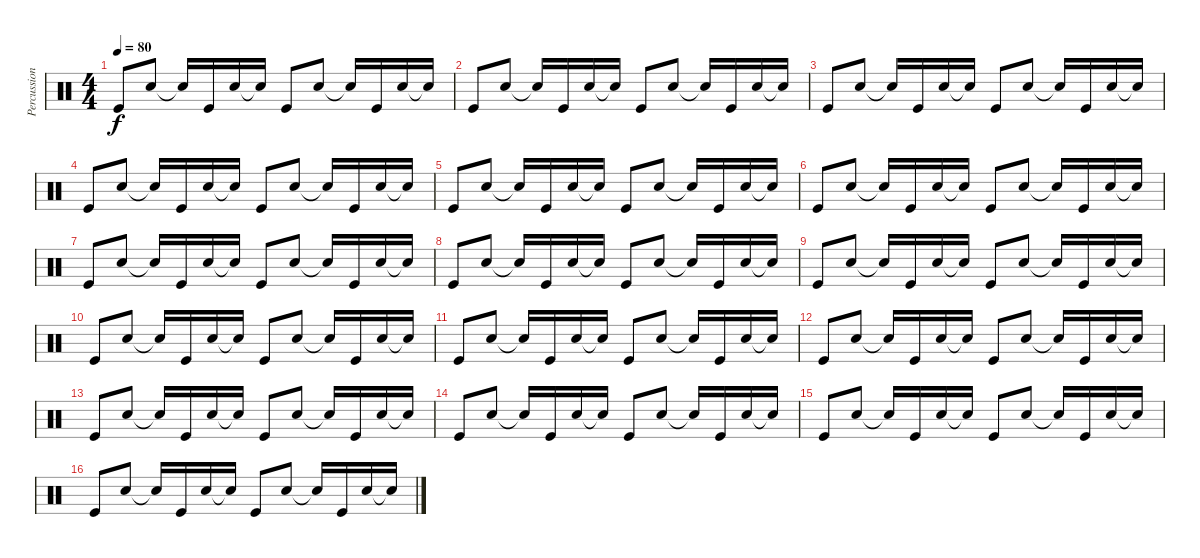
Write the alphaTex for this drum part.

\track ("Percussion" "Percussion") {instrument percussion}
\staff {score}
\articulation defaults
\ts (4 4)
\tempo 80
\clef neutral
\ks c "Kick (hit)".8{dy f} "Snare (hit) 2".8 "Snare (hit)"{t}.16 "Kick (hit)".16 "Snare (hit) 2".16 "Snare (hit)"{t}.16 "Kick (hit)".8 "Snare (hit) 2".8 "Snare (hit)"{t}.16 "Kick (hit)".16 "Snare (hit) 2".16 "Snare (hit)"{t}.16
|
"Kick (hit)".8 "Snare (hit) 2".8 "Snare (hit)"{t}.16 "Kick (hit)".16 "Snare (hit) 2".16 "Snare (hit)"{t}.16 "Kick (hit)".8 "Snare (hit) 2".8 "Snare (hit)"{t}.16 "Kick (hit)".16 "Snare (hit) 2".16 "Snare (hit)"{t}.16 |
"Kick (hit)".8 "Snare (hit) 2".8 "Snare (hit)"{t}.16 "Kick (hit)".16 "Snare (hit) 2".16 "Snare (hit)"{t}.16 "Kick (hit)".8 "Snare (hit) 2".8 "Snare (hit)"{t}.16 "Kick (hit)".16 "Snare (hit) 2".16 "Snare (hit)"{t}.16 |
"Kick (hit)".8 "Snare (hit) 2".8 "Snare (hit)"{t}.16 "Kick (hit)".16 "Snare (hit) 2".16 "Snare (hit)"{t}.16 "Kick (hit)".8 "Snare (hit) 2".8 "Snare (hit)"{t}.16 "Kick (hit)".16 "Snare (hit) 2".16 "Snare (hit)"{t}.16 |
"Kick (hit)".8 "Snare (hit) 2".8 "Snare (hit)"{t}.16 "Kick (hit)".16 "Snare (hit) 2".16 "Snare (hit)"{t}.16 "Kick (hit)".8 "Snare (hit) 2".8 "Snare (hit)"{t}.16 "Kick (hit)".16 "Snare (hit) 2".16 "Snare (hit)"{t}.16 |
"Kick (hit)".8 "Snare (hit) 2".8 "Snare (hit)"{t}.16 "Kick (hit)".16 "Snare (hit) 2".16 "Snare (hit)"{t}.16 "Kick (hit)".8 "Snare (hit) 2".8 "Snare (hit)"{t}.16 "Kick (hit)".16 "Snare (hit) 2".16 "Snare (hit)"{t}.16 |
"Kick (hit)".8 "Snare (hit) 2".8 "Snare (hit)"{t}.16 "Kick (hit)".16 "Snare (hit) 2".16 "Snare (hit)"{t}.16 "Kick (hit)".8 "Snare (hit) 2".8 "Snare (hit)"{t}.16 "Kick (hit)".16 "Snare (hit) 2".16 "Snare (hit)"{t}.16 |
"Kick (hit)".8 "Snare (hit) 2".8 "Snare (hit)"{t}.16 "Kick (hit)".16 "Snare (hit) 2".16 "Snare (hit)"{t}.16 "Kick (hit)".8 "Snare (hit) 2".8 "Snare (hit)"{t}.16 "Kick (hit)".16 "Snare (hit) 2".16 "Snare (hit)"{t}.16 |
"Kick (hit)".8 "Snare (hit) 2".8 "Snare (hit)"{t}.16 "Kick (hit)".16 "Snare (hit) 2".16 "Snare (hit)"{t}.16 "Kick (hit)".8 "Snare (hit) 2".8 "Snare (hit)"{t}.16 "Kick (hit)".16 "Snare (hit) 2".16 "Snare (hit)"{t}.16 |
"Kick (hit)".8 "Snare (hit) 2".8 "Snare (hit)"{t}.16 "Kick (hit)".16 "Snare (hit) 2".16 "Snare (hit)"{t}.16 "Kick (hit)".8 "Snare (hit) 2".8 "Snare (hit)"{t}.16 "Kick (hit)".16 "Snare (hit) 2".16 "Snare (hit)"{t}.16 |
"Kick (hit)".8 "Snare (hit) 2".8 "Snare (hit)"{t}.16 "Kick (hit)".16 "Snare (hit) 2".16 "Snare (hit)"{t}.16 "Kick (hit)".8 "Snare (hit) 2".8 "Snare (hit)"{t}.16 "Kick (hit)".16 "Snare (hit) 2".16 "Snare (hit)"{t}.16 |
"Kick (hit)".8 "Snare (hit) 2".8 "Snare (hit)"{t}.16 "Kick (hit)".16 "Snare (hit) 2".16 "Snare (hit)"{t}.16 "Kick (hit)".8 "Snare (hit) 2".8 "Snare (hit)"{t}.16 "Kick (hit)".16 "Snare (hit) 2".16 "Snare (hit)"{t}.16 |
"Kick (hit)".8 "Snare (hit) 2".8 "Snare (hit)"{t}.16 "Kick (hit)".16 "Snare (hit) 2".16 "Snare (hit)"{t}.16 "Kick (hit)".8 "Snare (hit) 2".8 "Snare (hit)"{t}.16 "Kick (hit)".16 "Snare (hit) 2".16 "Snare (hit)"{t}.16 |
"Kick (hit)".8 "Snare (hit) 2".8 "Snare (hit)"{t}.16 "Kick (hit)".16 "Snare (hit) 2".16 "Snare (hit)"{t}.16 "Kick (hit)".8 "Snare (hit) 2".8 "Snare (hit)"{t}.16 "Kick (hit)".16 "Snare (hit) 2".16 "Snare (hit)"{t}.16 |
"Kick (hit)".8 "Snare (hit) 2".8 "Snare (hit)"{t}.16 "Kick (hit)".16 "Snare (hit) 2".16 "Snare (hit)"{t}.16 "Kick (hit)".8 "Snare (hit) 2".8 "Snare (hit)"{t}.16 "Kick (hit)".16 "Snare (hit) 2".16 "Snare (hit)"{t}.16 |
"Kick (hit)".8 "Snare (hit) 2".8 "Snare (hit)"{t}.16 "Kick (hit)".16 "Snare (hit) 2".16 "Snare (hit)"{t}.16 "Kick (hit)".8 "Snare (hit) 2".8 "Snare (hit)"{t}.16 "Kick (hit)".16 "Snare (hit) 2".16 "Snare (hit)"{t}.16
